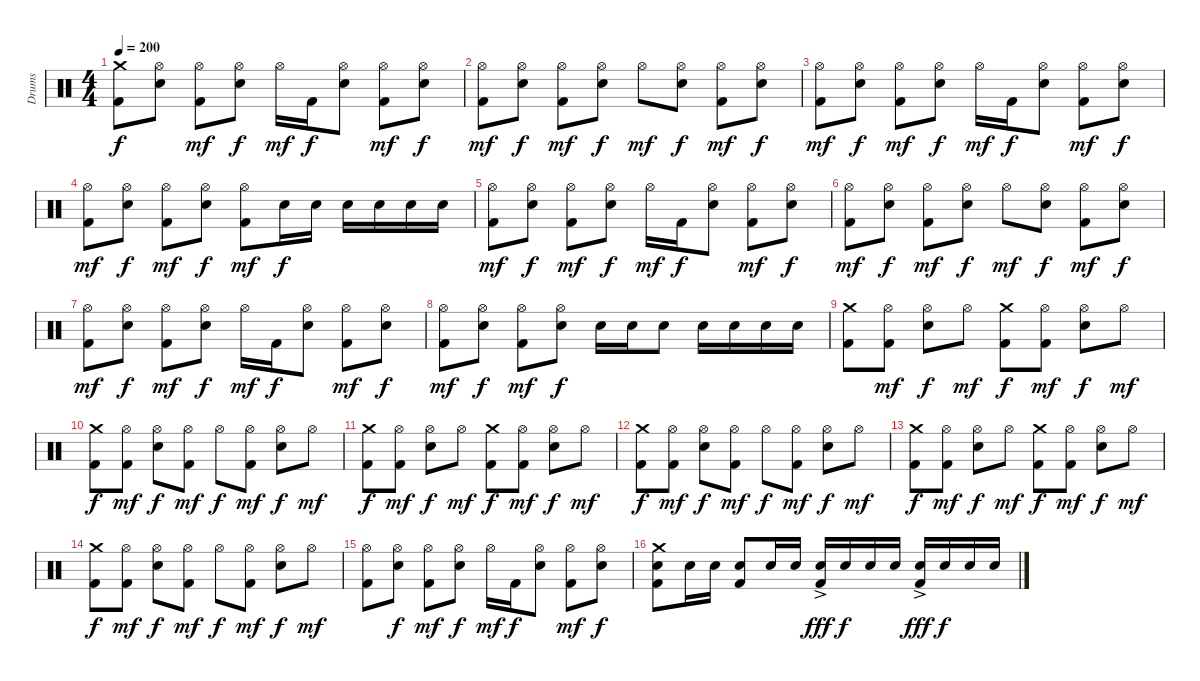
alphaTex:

\track ("Drums" "Drums") {instrument percussion}
\staff {score}
\articulation defaults
\ts (4 4)
\tempo 200
\clef neutral
\ks c
("Crash medium (hit)" "Kick (hit) 2").8{dy f} ("Hi-Hat (open)" "Electric Snare (hit)").8 ("Hi-Hat (open)" "Kick (hit) 2").8{dy mf} ("Hi-Hat (open)" "Electric Snare (hit)").8{dy f} "Hi-Hat (open)".16{dy mf} "Kick (hit) 2".16{dy f} ("Hi-Hat (open)" "Electric Snare (hit)").8 ("Hi-Hat (open)" "Kick (hit) 2").8{dy mf} ("Hi-Hat (open)" "Electric Snare (hit)").8{dy f} |
("Hi-Hat (open)" "Kick (hit) 2").8{dy mf} ("Hi-Hat (open)" "Electric Snare (hit)").8{dy f} ("Hi-Hat (open)" "Kick (hit) 2").8{dy mf} ("Hi-Hat (open)" "Electric Snare (hit)").8{dy f} "Hi-Hat (open)".8{dy mf} ("Hi-Hat (open)" "Electric Snare (hit)").8{dy f} ("Hi-Hat (open)" "Kick (hit) 2").8{dy mf} ("Hi-Hat (open)" "Electric Snare (hit)").8{dy f} |
("Hi-Hat (open)" "Kick (hit) 2").8{dy mf} ("Hi-Hat (open)" "Electric Snare (hit)").8{dy f} ("Hi-Hat (open)" "Kick (hit) 2").8{dy mf} ("Hi-Hat (open)" "Electric Snare (hit)").8{dy f} "Hi-Hat (open)".16{dy mf} "Kick (hit) 2".16{dy f} ("Hi-Hat (open)" "Electric Snare (hit)").8 ("Hi-Hat (open)" "Kick (hit) 2").8{dy mf} ("Hi-Hat (open)" "Electric Snare (hit)").8{dy f} |
("Hi-Hat (open)" "Kick (hit) 2").8{dy mf} ("Hi-Hat (open)" "Electric Snare (hit)").8{dy f} ("Hi-Hat (open)" "Kick (hit) 2").8{dy mf} ("Hi-Hat (open)" "Electric Snare (hit)").8{dy f} ("Hi-Hat (open)" "Kick (hit) 2").8{dy mf} "Electric Snare (hit)".16{dy f} "Electric Snare (hit)".16 "Electric Snare (hit)".16 "Electric Snare (hit)".16 "Electric Snare (hit)".16 "Electric Snare (hit)".16 |
("Hi-Hat (open)" "Kick (hit) 2").8{dy mf} ("Hi-Hat (open)" "Electric Snare (hit)").8{dy f} ("Hi-Hat (open)" "Kick (hit) 2").8{dy mf} ("Hi-Hat (open)" "Electric Snare (hit)").8{dy f} "Hi-Hat (open)".16{dy mf} "Kick (hit) 2".16{dy f} ("Hi-Hat (open)" "Electric Snare (hit)").8 ("Hi-Hat (open)" "Kick (hit) 2").8{dy mf} ("Hi-Hat (open)" "Electric Snare (hit)").8{dy f} |
("Hi-Hat (open)" "Kick (hit) 2").8{dy mf} ("Hi-Hat (open)" "Electric Snare (hit)").8{dy f} ("Hi-Hat (open)" "Kick (hit) 2").8{dy mf} ("Hi-Hat (open)" "Electric Snare (hit)").8{dy f} "Hi-Hat (open)".8{dy mf} ("Hi-Hat (open)" "Electric Snare (hit)").8{dy f} ("Hi-Hat (open)" "Kick (hit) 2").8{dy mf} ("Hi-Hat (open)" "Electric Snare (hit)").8{dy f} |
("Hi-Hat (open)" "Kick (hit) 2").8{dy mf} ("Hi-Hat (open)" "Electric Snare (hit)").8{dy f} ("Hi-Hat (open)" "Kick (hit) 2").8{dy mf} ("Hi-Hat (open)" "Electric Snare (hit)").8{dy f} "Hi-Hat (open)".16{dy mf} "Kick (hit) 2".16{dy f} ("Hi-Hat (open)" "Electric Snare (hit)").8 ("Hi-Hat (open)" "Kick (hit) 2").8{dy mf} ("Hi-Hat (open)" "Electric Snare (hit)").8{dy f} |
("Hi-Hat (open)" "Kick (hit) 2").8{dy mf} ("Hi-Hat (open)" "Electric Snare (hit)").8{dy f} ("Hi-Hat (open)" "Kick (hit) 2").8{dy mf} ("Hi-Hat (open)" "Electric Snare (hit)").8{dy f} "Electric Snare (hit)".16 "Electric Snare (hit)".16 "Electric Snare (hit)".8 "Electric Snare (hit)".16 "Electric Snare (hit)".16 "Electric Snare (hit)".16 "Electric Snare (hit)".16 |
("Crash medium (hit)" "Kick (hit) 2").8 ("Hi-Hat (open)" "Kick (hit) 2").8{dy mf} ("Hi-Hat (open)" "Electric Snare (hit)").8{dy f} "Hi-Hat (open)".8{dy mf} ("Crash medium (hit)" "Kick (hit) 2").8{dy f} ("Hi-Hat (open)" "Kick (hit) 2").8{dy mf} ("Hi-Hat (open)" "Electric Snare (hit)").8{dy f} "Hi-Hat (open)".8{dy mf} |
("Crash medium (hit)" "Kick (hit) 2").8{dy f} ("Hi-Hat (open)" "Kick (hit) 2").8{dy mf} ("Hi-Hat (open)" "Electric Snare (hit)").8{dy f} ("Hi-Hat (open)" "Kick (hit) 2").8{dy mf} "Hi-Hat (open)".8{dy f} ("Hi-Hat (open)" "Kick (hit) 2").8{dy mf} ("Hi-Hat (open)" "Electric Snare (hit)").8{dy f} "Hi-Hat (open)".8{dy mf} |
("Crash medium (hit)" "Kick (hit) 2").8{dy f} ("Hi-Hat (open)" "Kick (hit) 2").8{dy mf} ("Hi-Hat (open)" "Electric Snare (hit)").8{dy f} "Hi-Hat (open)".8{dy mf} ("Crash medium (hit)" "Kick (hit) 2").8{dy f} ("Hi-Hat (open)" "Kick (hit) 2").8{dy mf} ("Hi-Hat (open)" "Electric Snare (hit)").8{dy f} "Hi-Hat (open)".8{dy mf} |
("Crash medium (hit)" "Kick (hit) 2").8{dy f} ("Hi-Hat (open)" "Kick (hit) 2").8{dy mf} ("Hi-Hat (open)" "Electric Snare (hit)").8{dy f} ("Hi-Hat (open)" "Kick (hit) 2").8{dy mf} "Hi-Hat (open)".8{dy f} ("Hi-Hat (open)" "Kick (hit) 2").8{dy mf} ("Hi-Hat (open)" "Electric Snare (hit)").8{dy f} "Hi-Hat (open)".8{dy mf} |
("Crash medium (hit)" "Kick (hit) 2").8{dy f} ("Hi-Hat (open)" "Kick (hit) 2").8{dy mf} ("Hi-Hat (open)" "Electric Snare (hit)").8{dy f} "Hi-Hat (open)".8{dy mf} ("Crash medium (hit)" "Kick (hit) 2").8{dy f} ("Hi-Hat (open)" "Kick (hit) 2").8{dy mf} ("Hi-Hat (open)" "Electric Snare (hit)").8{dy f} "Hi-Hat (open)".8{dy mf} |
("Crash medium (hit)" "Kick (hit) 2").8{dy f} ("Hi-Hat (open)" "Kick (hit) 2").8{dy mf} ("Hi-Hat (open)" "Electric Snare (hit)").8{dy f} ("Hi-Hat (open)" "Kick (hit) 2").8{dy mf} "Hi-Hat (open)".8{dy f} ("Hi-Hat (open)" "Kick (hit) 2").8{dy mf} ("Hi-Hat (open)" "Electric Snare (hit)").8{dy f} "Hi-Hat (open)".8{dy mf} |
("Hi-Hat (open)" "Kick (hit) 2").8 ("Hi-Hat (open)" "Electric Snare (hit)").8{dy f} ("Hi-Hat (open)" "Kick (hit) 2").8{dy mf} ("Hi-Hat (open)" "Electric Snare (hit)").8{dy f} "Hi-Hat (open)".16{dy mf} "Kick (hit) 2".16{dy f} ("Hi-Hat (open)" "Electric Snare (hit)").8 ("Hi-Hat (open)" "Kick (hit) 2").8{dy mf} ("Hi-Hat (open)" "Electric Snare (hit)").8{dy f} |
("Crash medium (hit)" "Electric Snare (hit)" "Kick (hit) 2").8 "Electric Snare (hit)".16 "Electric Snare (hit)".16 ("Electric Snare (hit)" "Kick (hit) 2").8 "Electric Snare (hit)".16 "Electric Snare (hit)".16 ("Electric Snare (hit)"{ac} "Kick (hit) 2").16{dy fff} "Electric Snare (hit)".16{dy f} "Electric Snare (hit)".16 "Electric Snare (hit)".16 ("Electric Snare (hit)"{ac} "Kick (hit) 2").16{dy fff} "Electric Snare (hit)".16{dy f} "Electric Snare (hit)".16 "Electric Snare (hit)".16
